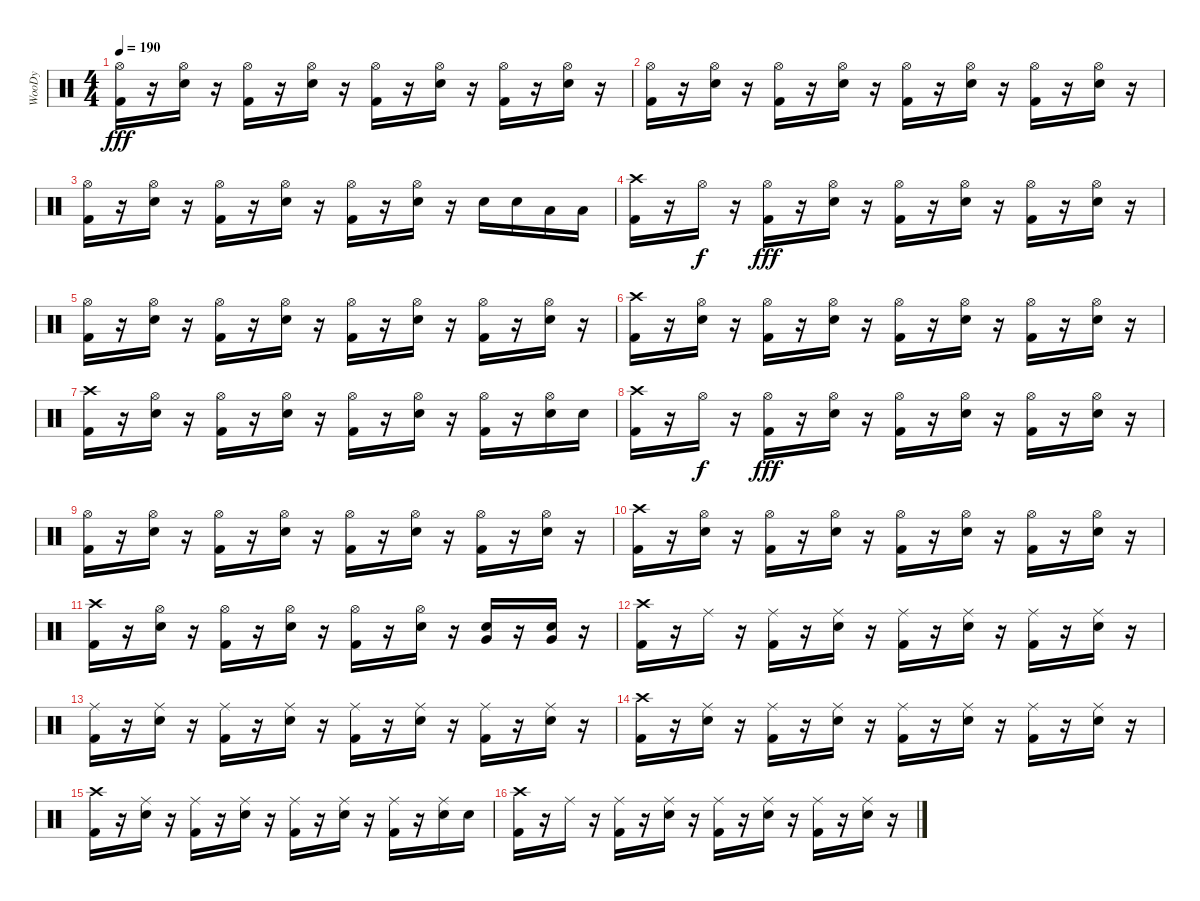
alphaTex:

\track ("WooDy" "WooDy") {instrument percussion}
\staff {score}
\articulation defaults
\ts (4 4)
\tempo 190
\clef neutral
\ks c
("Kick (hit) 2" "Hi-Hat (open)").16{dy fff} r.16 ("Snare (hit) 2" "Hi-Hat (open)").16 r.16 ("Kick (hit) 2" "Hi-Hat (open)").16 r.16 ("Snare (hit) 2" "Hi-Hat (open)").16 r.16 ("Kick (hit) 2" "Hi-Hat (open)").16 r.16 ("Snare (hit) 2" "Hi-Hat (open)").16 r.16 ("Kick (hit) 2" "Hi-Hat (open)").16 r.16 ("Snare (hit) 2" "Hi-Hat (open)").16 r.16 |
("Kick (hit) 2" "Hi-Hat (open)").16 r.16 ("Snare (hit) 2" "Hi-Hat (open)").16 r.16 ("Kick (hit) 2" "Hi-Hat (open)").16 r.16 ("Snare (hit) 2" "Hi-Hat (open)").16 r.16 ("Kick (hit) 2" "Hi-Hat (open)").16 r.16 ("Snare (hit) 2" "Hi-Hat (open)").16 r.16 ("Kick (hit) 2" "Hi-Hat (open)").16 r.16 ("Snare (hit) 2" "Hi-Hat (open)").16 r.16 |
("Kick (hit) 2" "Hi-Hat (open)").16 r.16 ("Snare (hit) 2" "Hi-Hat (open)").16 r.16 ("Kick (hit) 2" "Hi-Hat (open)").16 r.16 ("Snare (hit) 2" "Hi-Hat (open)").16 r.16 ("Kick (hit) 2" "Hi-Hat (open)").16 r.16 ("Snare (hit) 2" "Hi-Hat (open)").16 r.16 "Snare (hit) 2".16 "Snare (hit) 2".16 "Low Tom (hit)".16 "Low Tom (hit)".16 |
("Kick (hit) 2" "Crash high (hit)").16 r.16 "Hi-Hat (open)".16{dy f} r.16 ("Kick (hit) 2" "Hi-Hat (open)").16{dy fff} r.16 ("Snare (hit) 2" "Hi-Hat (open)").16 r.16 ("Kick (hit) 2" "Hi-Hat (open)").16 r.16 ("Snare (hit) 2" "Hi-Hat (open)").16 r.16 ("Kick (hit) 2" "Hi-Hat (open)").16 r.16 ("Snare (hit) 2" "Hi-Hat (open)").16 r.16 |
("Kick (hit) 2" "Hi-Hat (open)").16 r.16 ("Snare (hit) 2" "Hi-Hat (open)").16 r.16 ("Kick (hit) 2" "Hi-Hat (open)").16 r.16 ("Snare (hit) 2" "Hi-Hat (open)").16 r.16 ("Kick (hit) 2" "Hi-Hat (open)").16 r.16 ("Snare (hit) 2" "Hi-Hat (open)").16 r.16 ("Kick (hit) 2" "Hi-Hat (open)").16 r.16 ("Snare (hit) 2" "Hi-Hat (open)").16 r.16 |
("Kick (hit) 2" "Crash high (hit)").16 r.16 ("Snare (hit) 2" "Hi-Hat (open)").16 r.16 ("Kick (hit) 2" "Hi-Hat (open)").16 r.16 ("Snare (hit) 2" "Hi-Hat (open)").16 r.16 ("Kick (hit) 2" "Hi-Hat (open)").16 r.16 ("Snare (hit) 2" "Hi-Hat (open)").16 r.16 ("Kick (hit) 2" "Hi-Hat (open)").16 r.16 ("Snare (hit) 2" "Hi-Hat (open)").16 r.16 |
("Kick (hit) 2" "Crash high (hit)").16 r.16 ("Snare (hit) 2" "Hi-Hat (open)").16 r.16 ("Kick (hit) 2" "Hi-Hat (open)").16 r.16 ("Snare (hit) 2" "Hi-Hat (open)").16 r.16 ("Kick (hit) 2" "Hi-Hat (open)").16 r.16 ("Snare (hit) 2" "Hi-Hat (open)").16 r.16 ("Kick (hit) 2" "Hi-Hat (open)").16 r.16 ("Snare (hit) 2" "Hi-Hat (open)").16 "Snare (hit) 2".16 |
("Kick (hit) 2" "Crash high (hit)").16 r.16 "Hi-Hat (open)".16{dy f} r.16 ("Kick (hit) 2" "Hi-Hat (open)").16{dy fff} r.16 ("Snare (hit) 2" "Hi-Hat (open)").16 r.16 ("Kick (hit) 2" "Hi-Hat (open)").16 r.16 ("Snare (hit) 2" "Hi-Hat (open)").16 r.16 ("Kick (hit) 2" "Hi-Hat (open)").16 r.16 ("Snare (hit) 2" "Hi-Hat (open)").16 r.16 |
("Kick (hit) 2" "Hi-Hat (open)").16 r.16 ("Snare (hit) 2" "Hi-Hat (open)").16 r.16 ("Kick (hit) 2" "Hi-Hat (open)").16 r.16 ("Snare (hit) 2" "Hi-Hat (open)").16 r.16 ("Kick (hit) 2" "Hi-Hat (open)").16 r.16 ("Snare (hit) 2" "Hi-Hat (open)").16 r.16 ("Kick (hit) 2" "Hi-Hat (open)").16 r.16 ("Snare (hit) 2" "Hi-Hat (open)").16 r.16 |
("Kick (hit) 2" "Crash high (hit)").16 r.16 ("Snare (hit) 2" "Hi-Hat (open)").16 r.16 ("Kick (hit) 2" "Hi-Hat (open)").16 r.16 ("Snare (hit) 2" "Hi-Hat (open)").16 r.16 ("Kick (hit) 2" "Hi-Hat (open)").16 r.16 ("Snare (hit) 2" "Hi-Hat (open)").16 r.16 ("Kick (hit) 2" "Hi-Hat (open)").16 r.16 ("Snare (hit) 2" "Hi-Hat (open)").16 r.16 |
("Kick (hit) 2" "Crash high (hit)").16 r.16 ("Snare (hit) 2" "Hi-Hat (open)").16 r.16 ("Kick (hit) 2" "Hi-Hat (open)").16 r.16 ("Snare (hit) 2" "Hi-Hat (open)").16 r.16 ("Kick (hit) 2" "Hi-Hat (open)").16 r.16 ("Snare (hit) 2" "Hi-Hat (open)").16 r.16 ("Snare (hit) 2" "Very Low Tom (hit)").16 r.16 ("Snare (hit) 2" "Very Low Tom (hit)").16 r.16 |
("Kick (hit) 2" "Crash high (hit)").16 r.16 "Ride (middle)".16 r.16 ("Kick (hit) 2" "Ride (middle)").16 r.16 ("Snare (hit) 2" "Ride (middle)").16 r.16 ("Kick (hit) 2" "Ride (middle)").16 r.16 ("Snare (hit) 2" "Ride (middle)").16 r.16 ("Kick (hit) 2" "Ride (middle)").16 r.16 ("Snare (hit) 2" "Ride (middle)").16 r.16 |
("Kick (hit) 2" "Ride (middle)").16 r.16 ("Snare (hit) 2" "Ride (middle)").16 r.16 ("Kick (hit) 2" "Ride (middle)").16 r.16 ("Snare (hit) 2" "Ride (middle)").16 r.16 ("Kick (hit) 2" "Ride (middle)").16 r.16 ("Snare (hit) 2" "Ride (middle)").16 r.16 ("Kick (hit) 2" "Ride (middle)").16 r.16 ("Snare (hit) 2" "Ride (middle)").16 r.16 |
("Kick (hit) 2" "Crash high (hit)").16 r.16 ("Snare (hit) 2" "Ride (middle)").16 r.16 ("Kick (hit) 2" "Ride (middle)").16 r.16 ("Snare (hit) 2" "Ride (middle)").16 r.16 ("Kick (hit) 2" "Ride (middle)").16 r.16 ("Snare (hit) 2" "Ride (middle)").16 r.16 ("Kick (hit) 2" "Ride (middle)").16 r.16 ("Snare (hit) 2" "Ride (middle)").16 r.16 |
("Kick (hit) 2" "Crash high (hit)").16 r.16 ("Snare (hit) 2" "Ride (middle)").16 r.16 ("Kick (hit) 2" "Ride (middle)").16 r.16 ("Snare (hit) 2" "Ride (middle)").16 r.16 ("Kick (hit) 2" "Ride (middle)").16 r.16 ("Snare (hit) 2" "Ride (middle)").16 r.16 ("Kick (hit) 2" "Ride (middle)").16 r.16 ("Snare (hit) 2" "Ride (middle)").16 "Snare (hit) 2".16 |
("Kick (hit) 2" "Crash high (hit)").16 r.16 "Ride (middle)".16 r.16 ("Kick (hit) 2" "Ride (middle)").16 r.16 ("Snare (hit) 2" "Ride (middle)").16 r.16 ("Kick (hit) 2" "Ride (middle)").16 r.16 ("Snare (hit) 2" "Ride (middle)").16 r.16 ("Kick (hit) 2" "Ride (middle)").16 r.16 ("Snare (hit) 2" "Ride (middle)").16 r.16
